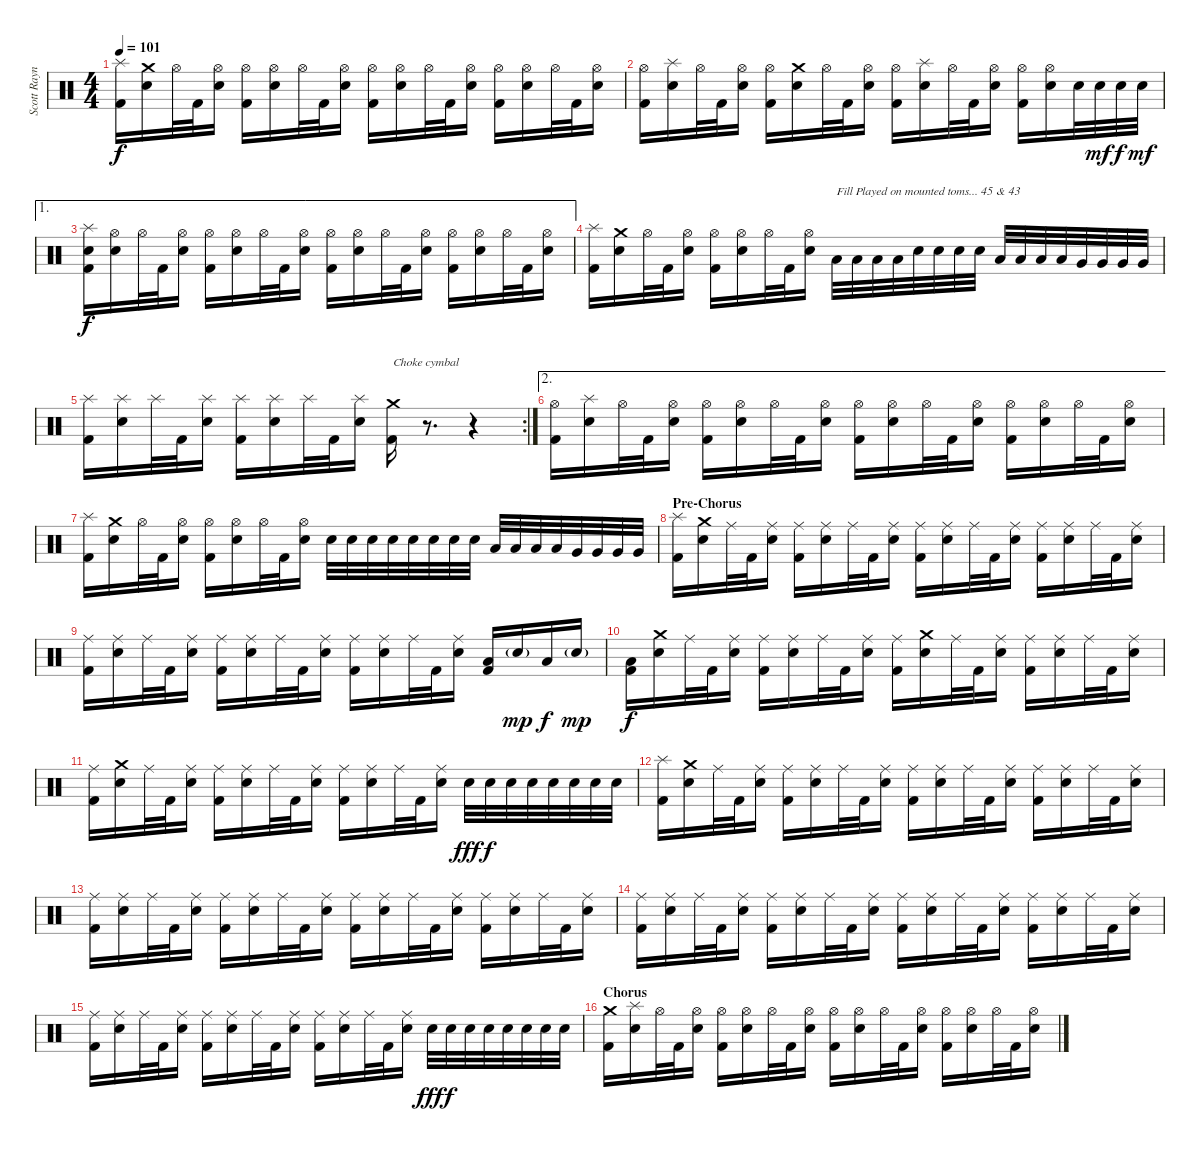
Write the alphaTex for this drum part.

\track ("Scott Raynor" "Scott Rayn") {instrument percussion}
\staff {score}
\articulation defaults
\ts (4 4)
\tempo 101
\clef neutral
\ks c
("Splash (hit)" "Kick (hit) 2").16{dy f} ("Crash medium (hit)" "Electric Snare (hit)").16 "Hi-Hat (open)".32 "Kick (hit) 2".32 ("Hi-Hat (open)" "Electric Snare (hit)").16 ("Hi-Hat (open)" "Kick (hit) 2").16 ("Hi-Hat (open)" "Electric Snare (hit)").16 "Hi-Hat (open)".32 "Kick (hit) 2".32 ("Hi-Hat (open)" "Electric Snare (hit)").16 ("Hi-Hat (open)" "Kick (hit) 2").16 ("Hi-Hat (open)" "Electric Snare (hit)").16 "Hi-Hat (open)".32 "Kick (hit) 2".32 ("Hi-Hat (open)" "Electric Snare (hit)").16 ("Hi-Hat (open)" "Kick (hit) 2").16 ("Hi-Hat (open)" "Electric Snare (hit)").16 "Hi-Hat (open)".32 "Kick (hit) 2".32 ("Hi-Hat (open)" "Electric Snare (hit)").16 |
("Hi-Hat (open)" "Kick (hit) 2").16 ("Splash (hit)" "Electric Snare (hit)").16 "Hi-Hat (open)".32 "Kick (hit) 2".32 ("Hi-Hat (open)" "Electric Snare (hit)").16 ("Hi-Hat (open)" "Kick (hit) 2").16 ("Crash medium (hit)" "Electric Snare (hit)").16 "Hi-Hat (open)".32 "Kick (hit) 2".32 ("Hi-Hat (open)" "Electric Snare (hit)").16 ("Hi-Hat (open)" "Kick (hit) 2").16 ("Splash (hit)" "Electric Snare (hit)").16 "Hi-Hat (open)".32 "Kick (hit) 2".32 ("Hi-Hat (open)" "Electric Snare (hit)").16 ("Hi-Hat (open)" "Kick (hit) 2").16 ("Hi-Hat (open)" "Electric Snare (hit)").16 "Electric Snare (hit)".32 "Electric Snare (hit)".32{dy mf} "Electric Snare (hit)".32{dy f} "Electric Snare (hit)".32{dy mf} |
\ae 1
("Splash (hit)" "Snare (hit)" "Kick (hit) 2").16{dy f} ("Hi-Hat (open)" "Electric Snare (hit)").16 "Hi-Hat (open)".32 "Kick (hit) 2".32 ("Hi-Hat (open)" "Electric Snare (hit)").16 ("Hi-Hat (open)" "Kick (hit) 2").16 ("Hi-Hat (open)" "Electric Snare (hit)").16 "Hi-Hat (open)".32 "Kick (hit) 2".32 ("Hi-Hat (open)" "Electric Snare (hit)").16 ("Hi-Hat (open)" "Kick (hit) 2").16 ("Hi-Hat (open)" "Electric Snare (hit)").16 "Hi-Hat (open)".32 "Kick (hit) 2".32 ("Hi-Hat (open)" "Electric Snare (hit)").16 ("Hi-Hat (open)" "Kick (hit) 2").16 ("Hi-Hat (open)" "Electric Snare (hit)").16 "Hi-Hat (open)".32 "Kick (hit) 2".32 ("Hi-Hat (open)" "Electric Snare (hit)").16 |
("Splash (hit)" "Kick (hit) 2").16 ("Crash medium (hit)" "Electric Snare (hit)").16 "Hi-Hat (open)".32 "Kick (hit) 2".32 ("Hi-Hat (open)" "Electric Snare (hit)").16 ("Hi-Hat (open)" "Kick (hit) 2").16 ("Hi-Hat (open)" "Electric Snare (hit)").16 "Hi-Hat (open)".32 "Kick (hit) 2".32 ("Hi-Hat (open)" "Electric Snare (hit)").16 "Low Tom (hit)".32{txt "Fill Played on mounted toms... 45 & 43"} "Low Tom (hit)".32 "Low Tom (hit)".32 "Low Tom (hit)".32 "Electric Snare (hit)".32 "Electric Snare (hit)".32 "Electric Snare (hit)".32 "Electric Snare (hit)".32 "Low Tom (hit)".32 "Low Tom (hit)".32 "Low Tom (hit)".32 "Low Tom (hit)".32 "Very Low Tom (hit)".32 "Very Low Tom (hit)".32 "Very Low Tom (hit)".32 "Very Low Tom (hit)".32 |
\rc 2
("Splash (hit)" "Kick (hit) 2").16 ("Splash (hit)" "Electric Snare (hit)").16 "Splash (hit)".32 "Kick (hit) 2".32 ("Splash (hit)" "Electric Snare (hit)").16 ("Splash (hit)" "Kick (hit) 2").16 ("Splash (hit)" "Electric Snare (hit)").16 "Splash (hit)".32 "Kick (hit) 2".32 ("Splash (hit)" "Electric Snare (hit)").16 ("Crash medium (hit)" "Kick (hit) 2").16{txt "Choke cymbal" volume 0} r.8{d} r.4{volume 13} |
\ae 2
("Hi-Hat (open)" "Kick (hit) 2").16 ("Splash (hit)" "Electric Snare (hit)").16 "Hi-Hat (open)".32 "Kick (hit) 2".32 ("Hi-Hat (open)" "Electric Snare (hit)").16 ("Hi-Hat (open)" "Kick (hit) 2").16 ("Hi-Hat (open)" "Electric Snare (hit)").16 "Hi-Hat (open)".32 "Kick (hit) 2".32 ("Hi-Hat (open)" "Electric Snare (hit)").16 ("Hi-Hat (open)" "Kick (hit) 2").16 ("Hi-Hat (open)" "Electric Snare (hit)").16 "Hi-Hat (open)".32 "Kick (hit) 2".32 ("Hi-Hat (open)" "Electric Snare (hit)").16 ("Hi-Hat (open)" "Kick (hit) 2").16 ("Hi-Hat (open)" "Electric Snare (hit)").16 "Hi-Hat (open)".32 "Kick (hit) 2".32 ("Hi-Hat (open)" "Electric Snare (hit)").16 |
("Splash (hit)" "Kick (hit) 2").16 ("Crash medium (hit)" "Electric Snare (hit)").16 "Hi-Hat (open)".32 "Kick (hit) 2".32 ("Hi-Hat (open)" "Electric Snare (hit)").16 ("Hi-Hat (open)" "Kick (hit) 2").16 ("Hi-Hat (open)" "Electric Snare (hit)").16 "Hi-Hat (open)".32 "Kick (hit) 2".32 ("Hi-Hat (open)" "Electric Snare (hit)").16 "Electric Snare (hit)".32 "Electric Snare (hit)".32 "Electric Snare (hit)".32 "Electric Snare (hit)".32 "Electric Snare (hit)".32 "Electric Snare (hit)".32 "Electric Snare (hit)".32 "Electric Snare (hit)".32 "Low Tom (hit)".32 "Low Tom (hit)".32 "Low Tom (hit)".32 "Low Tom (hit)".32 "Very Low Tom (hit)".32 "Very Low Tom (hit)".32 "Very Low Tom (hit)".32 "Very Low Tom (hit)".32 |
\section ("" "Pre-Chorus")
("Splash (hit)" "Kick (hit) 2").16 ("Crash medium (hit)" "Electric Snare (hit)").16 "Ride (middle)".32 "Kick (hit) 2".32 ("Ride (middle)" "Electric Snare (hit)").16 ("Ride (middle)" "Kick (hit) 2").16 ("Ride (middle)" "Electric Snare (hit)").16 "Ride (middle)".32 "Kick (hit) 2".32 ("Ride (middle)" "Electric Snare (hit)").16 ("Ride (middle)" "Kick (hit) 2").16 ("Ride (middle)" "Electric Snare (hit)").16 "Ride (middle)".32 "Kick (hit) 2".32 ("Ride (middle)" "Electric Snare (hit)").16 ("Ride (middle)" "Kick (hit) 2").16 ("Ride (middle)" "Electric Snare (hit)").16 "Ride (middle)".32 "Kick (hit) 2".32 ("Ride (middle)" "Electric Snare (hit)").16 |
("Ride (middle)" "Kick (hit) 2").16 ("Ride (middle)" "Electric Snare (hit)").16 "Ride (middle)".32 "Kick (hit) 2".32 ("Ride (middle)" "Electric Snare (hit)").16 ("Ride (middle)" "Kick (hit) 2").16 ("Ride (middle)" "Electric Snare (hit)").16 "Ride (middle)".32 "Kick (hit) 2".32 ("Ride (middle)" "Electric Snare (hit)").16 ("Ride (middle)" "Kick (hit) 2").16 ("Ride (middle)" "Electric Snare (hit)").16 "Ride (middle)".32 "Kick (hit) 2".32 ("Ride (middle)" "Electric Snare (hit)").16 ("Low Floor Tom (hit)" "Kick (hit) 2").16 "Electric Snare (hit)"{g}.16{dy mp} "Low Floor Tom (hit)".16{dy f} "Electric Snare (hit)"{g}.16{dy mp} |
("Low Floor Tom (hit)" "Kick (hit) 2").16{dy f} ("Crash medium (hit)" "Electric Snare (hit)").16 "Ride (middle)".32 "Kick (hit) 2".32 ("Ride (middle)" "Electric Snare (hit)").16 ("Ride (middle)" "Kick (hit) 2").16 ("Ride (middle)" "Electric Snare (hit)").16 "Ride (middle)".32 "Kick (hit) 2".32 ("Ride (middle)" "Electric Snare (hit)").16 ("Ride (middle)" "Kick (hit) 2").16 ("Crash medium (hit)" "Electric Snare (hit)").16 "Ride (middle)".32 "Kick (hit) 2".32 ("Ride (middle)" "Electric Snare (hit)").16 ("Ride (middle)" "Kick (hit) 2").16 ("Ride (middle)" "Electric Snare (hit)").16 "Ride (middle)".32 "Kick (hit) 2".32 ("Ride (middle)" "Electric Snare (hit)").16 |
("Ride (middle)" "Kick (hit) 2").16 ("Crash medium (hit)" "Electric Snare (hit)").16 "Ride (middle)".32 "Kick (hit) 2".32 ("Ride (middle)" "Electric Snare (hit)").16 ("Ride (middle)" "Kick (hit) 2").16 ("Ride (middle)" "Electric Snare (hit)").16 "Ride (middle)".32 "Kick (hit) 2".32 ("Ride (middle)" "Electric Snare (hit)").16 ("Ride (middle)" "Kick (hit) 2").16 ("Ride (middle)" "Electric Snare (hit)").16 "Ride (middle)".32 "Kick (hit) 2".32 ("Ride (middle)" "Electric Snare (hit)").16 "Electric Snare (hit)".32{dy fff} "Electric Snare (hit)".32{dy f} "Electric Snare (hit)".32 "Electric Snare (hit)".32 "Electric Snare (hit)".32 "Electric Snare (hit)".32 "Electric Snare (hit)".32 "Electric Snare (hit)".32 |
("Splash (hit)" "Kick (hit) 2").16 ("Crash medium (hit)" "Electric Snare (hit)").16 "Ride (middle)".32 "Kick (hit) 2".32 ("Ride (middle)" "Electric Snare (hit)").16 ("Ride (middle)" "Kick (hit) 2").16 ("Ride (middle)" "Electric Snare (hit)").16 "Ride (middle)".32 "Kick (hit) 2".32 ("Ride (middle)" "Electric Snare (hit)").16 ("Ride (middle)" "Kick (hit) 2").16 ("Ride (middle)" "Electric Snare (hit)").16 "Ride (middle)".32 "Kick (hit) 2".32 ("Ride (middle)" "Electric Snare (hit)").16 ("Ride (middle)" "Kick (hit) 2").16 ("Ride (middle)" "Electric Snare (hit)").16 "Ride (middle)".32 "Kick (hit) 2".32 ("Ride (middle)" "Electric Snare (hit)").16 |
("Ride (middle)" "Kick (hit) 2").16 ("Ride (middle)" "Electric Snare (hit)").16 "Ride (middle)".32 "Kick (hit) 2".32 ("Ride (middle)" "Electric Snare (hit)").16 ("Ride (middle)" "Kick (hit) 2").16 ("Ride (middle)" "Electric Snare (hit)").16 "Ride (middle)".32 "Kick (hit) 2".32 ("Ride (middle)" "Electric Snare (hit)").16 ("Ride (middle)" "Kick (hit) 2").16 ("Ride (middle)" "Electric Snare (hit)").16 "Ride (middle)".32 "Kick (hit) 2".32 ("Ride (middle)" "Electric Snare (hit)").16 ("Ride (middle)" "Kick (hit) 2").16 ("Ride (middle)" "Electric Snare (hit)").16 "Ride (middle)".32 "Kick (hit) 2".32 ("Ride (middle)" "Electric Snare (hit)").16 |
("Ride (middle)" "Kick (hit) 2").16 ("Ride (middle)" "Electric Snare (hit)").16 "Ride (middle)".32 "Kick (hit) 2".32 ("Ride (middle)" "Electric Snare (hit)").16 ("Ride (middle)" "Kick (hit) 2").16 ("Ride (middle)" "Electric Snare (hit)").16 "Ride (middle)".32 "Kick (hit) 2".32 ("Ride (middle)" "Electric Snare (hit)").16 ("Ride (middle)" "Kick (hit) 2").16 ("Ride (middle)" "Electric Snare (hit)").16 "Ride (middle)".32 "Kick (hit) 2".32 ("Ride (middle)" "Electric Snare (hit)").16 ("Ride (middle)" "Kick (hit) 2").16 ("Ride (middle)" "Electric Snare (hit)").16 "Ride (middle)".32 "Kick (hit) 2".32 ("Ride (middle)" "Electric Snare (hit)").16 |
("Ride (middle)" "Kick (hit) 2").16 ("Ride (middle)" "Electric Snare (hit)").16 "Ride (middle)".32 "Kick (hit) 2".32 ("Ride (middle)" "Electric Snare (hit)").16 ("Ride (middle)" "Kick (hit) 2").16 ("Ride (middle)" "Electric Snare (hit)").16 "Ride (middle)".32 "Kick (hit) 2".32 ("Ride (middle)" "Electric Snare (hit)").16 ("Ride (middle)" "Kick (hit) 2").16 ("Ride (middle)" "Electric Snare (hit)").16 "Ride (middle)".32 "Kick (hit) 2".32 ("Ride (middle)" "Electric Snare (hit)").16 "Electric Snare (hit)".32{dy fff} "Electric Snare (hit)".32{dy f} "Electric Snare (hit)".32 "Electric Snare (hit)".32 "Electric Snare (hit)".32 "Electric Snare (hit)".32 "Electric Snare (hit)".32 "Electric Snare (hit)".32 |
\section ("" "Chorus")
("Crash medium (hit)" "Kick (hit) 2").16 ("Splash (hit)" "Electric Snare (hit)").16 "Hi-Hat (open)".32 "Kick (hit) 2".32 ("Hi-Hat (open)" "Electric Snare (hit)").16 ("Hi-Hat (open)" "Kick (hit) 2").16 ("Hi-Hat (open)" "Electric Snare (hit)").16 "Hi-Hat (open)".32 "Kick (hit) 2".32 ("Hi-Hat (open)" "Electric Snare (hit)").16 ("Hi-Hat (open)" "Kick (hit) 2").16 ("Hi-Hat (open)" "Electric Snare (hit)").16 "Hi-Hat (open)".32 "Kick (hit) 2".32 ("Hi-Hat (open)" "Electric Snare (hit)").16 ("Hi-Hat (open)" "Kick (hit) 2").16 ("Hi-Hat (open)" "Electric Snare (hit)").16 "Hi-Hat (open)".32 "Kick (hit) 2".32 ("Hi-Hat (open)" "Electric Snare (hit)").16
